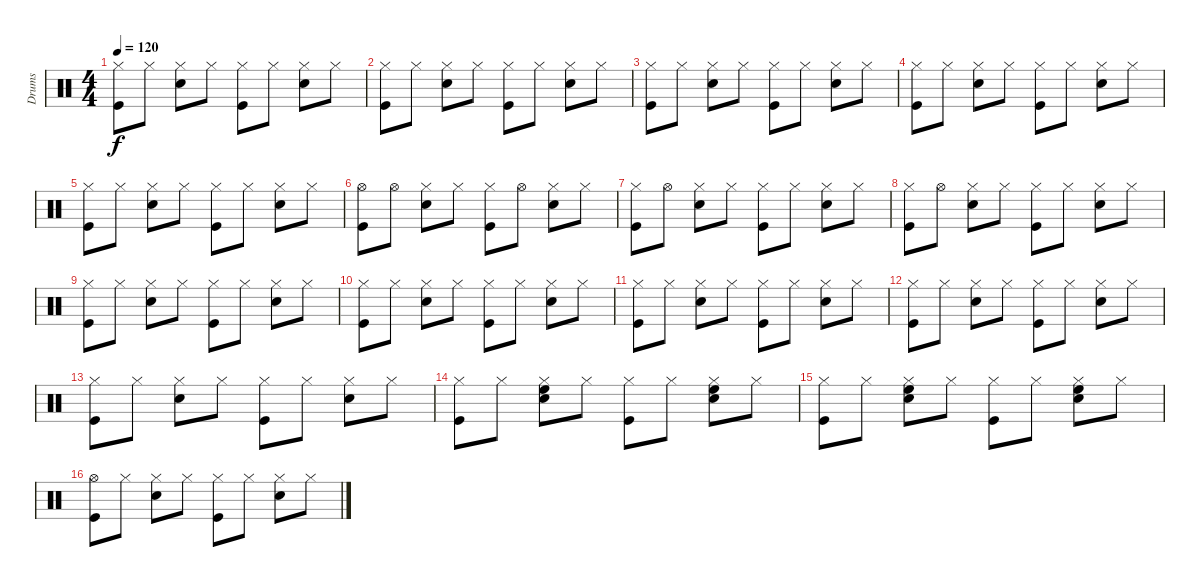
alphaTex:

\track ("Drums" "Drums") {instrument percussion}
\staff {score}
\articulation defaults
\ts (4 4)
\tempo 120
\clef neutral
\ks c
("Hi-Hat (closed)" "Kick (hit)").8{dy f} "Hi-Hat (closed)".8 ("Hi-Hat (closed)" "Snare (hit) 2").8 "Hi-Hat (closed)".8 ("Hi-Hat (closed)" "Kick (hit)").8 "Hi-Hat (closed)".8 ("Hi-Hat (closed)" "Snare (hit) 2").8 "Hi-Hat (closed)".8 |
("Hi-Hat (closed)" "Kick (hit)").8 "Hi-Hat (closed)".8 ("Hi-Hat (closed)" "Snare (hit) 2").8 "Hi-Hat (closed)".8 ("Hi-Hat (closed)" "Kick (hit)").8 "Hi-Hat (closed)".8 ("Hi-Hat (closed)" "Snare (hit) 2").8 "Hi-Hat (closed)".8 |
("Hi-Hat (closed)" "Kick (hit)").8 "Hi-Hat (closed)".8 ("Hi-Hat (closed)" "Snare (hit) 2").8 "Hi-Hat (closed)".8 ("Hi-Hat (closed)" "Kick (hit)").8 "Hi-Hat (closed)".8 ("Hi-Hat (closed)" "Snare (hit) 2").8 "Hi-Hat (closed)".8 |
("Hi-Hat (closed)" "Kick (hit)").8 "Hi-Hat (closed)".8 ("Hi-Hat (closed)" "Snare (hit) 2").8 "Hi-Hat (closed)".8 ("Hi-Hat (closed)" "Kick (hit)").8 "Hi-Hat (closed)".8 ("Hi-Hat (closed)" "Snare (hit) 2").8 "Hi-Hat (closed)".8 |
("Hi-Hat (closed)" "Kick (hit)").8 "Hi-Hat (closed)".8 ("Hi-Hat (closed)" "Snare (hit) 2").8 "Hi-Hat (closed)".8 ("Hi-Hat (closed)" "Kick (hit)").8 "Hi-Hat (closed)".8 ("Hi-Hat (closed)" "Snare (hit) 2").8 "Hi-Hat (closed)".8 |
("Hi-Hat (open)" "Kick (hit)").8 "Hi-Hat (open)".8 ("Hi-Hat (closed)" "Snare (hit) 2").8 "Hi-Hat (closed)".8 ("Hi-Hat (closed)" "Kick (hit)").8 "Hi-Hat (open)".8 ("Hi-Hat (closed)" "Snare (hit) 2").8 "Hi-Hat (closed)".8 |
("Hi-Hat (closed)" "Kick (hit)").8 "Hi-Hat (open)".8 ("Hi-Hat (closed)" "Snare (hit) 2").8 "Hi-Hat (closed)".8 ("Hi-Hat (closed)" "Kick (hit)").8 "Hi-Hat (closed)".8 ("Hi-Hat (closed)" "Snare (hit) 2").8 "Hi-Hat (closed)".8 |
("Hi-Hat (closed)" "Kick (hit)").8 "Hi-Hat (open)".8 ("Hi-Hat (closed)" "Snare (hit) 2").8 "Hi-Hat (closed)".8 ("Hi-Hat (closed)" "Kick (hit)").8 "Hi-Hat (closed)".8 ("Hi-Hat (closed)" "Snare (hit) 2").8 "Hi-Hat (closed)".8 |
("Hi-Hat (closed)" "Kick (hit)").8 "Hi-Hat (closed)".8 ("Hi-Hat (closed)" "Snare (hit) 2").8 "Hi-Hat (closed)".8 ("Hi-Hat (closed)" "Kick (hit)").8 "Hi-Hat (closed)".8 ("Hi-Hat (closed)" "Snare (hit) 2").8 "Hi-Hat (closed)".8 |
("Hi-Hat (closed)" "Kick (hit)").8 "Hi-Hat (closed)".8 ("Hi-Hat (closed)" "Snare (hit) 2").8 "Hi-Hat (closed)".8 ("Hi-Hat (closed)" "Kick (hit)").8 "Hi-Hat (closed)".8 ("Hi-Hat (closed)" "Snare (hit) 2").8 "Hi-Hat (closed)".8 |
("Hi-Hat (closed)" "Kick (hit)").8 "Hi-Hat (closed)".8 ("Hi-Hat (closed)" "Snare (hit) 2").8 "Hi-Hat (closed)".8 ("Hi-Hat (closed)" "Kick (hit)").8 "Hi-Hat (closed)".8 ("Hi-Hat (closed)" "Snare (hit) 2").8 "Hi-Hat (closed)".8 |
("Hi-Hat (closed)" "Kick (hit)").8 "Hi-Hat (closed)".8 ("Hi-Hat (closed)" "Snare (hit) 2").8 "Hi-Hat (closed)".8 ("Hi-Hat (closed)" "Kick (hit)").8 "Hi-Hat (closed)".8 ("Hi-Hat (closed)" "Snare (hit) 2").8 "Hi-Hat (closed)".8 |
("Hi-Hat (closed)" "Kick (hit)").8 "Hi-Hat (closed)".8 ("Hi-Hat (closed)" "Snare (hit) 2").8 "Hi-Hat (closed)".8 ("Hi-Hat (closed)" "Kick (hit)").8 "Hi-Hat (closed)".8 ("Hi-Hat (closed)" "Snare (hit) 2").8 "Hi-Hat (closed)".8 |
("Hi-Hat (closed)" "Kick (hit)").8 "Hi-Hat (closed)".8 ("Hi-Hat (closed)" "High Floor Tom (hit)" "Snare (hit) 2").8 "Hi-Hat (closed)".8 ("Hi-Hat (closed)" "Kick (hit)").8 "Hi-Hat (closed)".8 ("Hi-Hat (closed)" "High Floor Tom (hit)" "Snare (hit) 2").8 "Hi-Hat (closed)".8 |
("Hi-Hat (closed)" "Kick (hit)").8 "Hi-Hat (closed)".8 ("Hi-Hat (closed)" "High Floor Tom (hit)" "Snare (hit) 2").8 "Hi-Hat (closed)".8 ("Hi-Hat (closed)" "Kick (hit)").8 "Hi-Hat (closed)".8 ("Hi-Hat (closed)" "High Floor Tom (hit)" "Snare (hit) 2").8 "Hi-Hat (closed)".8 |
("Hi-Hat (open)" "Kick (hit)").8 "Hi-Hat (closed)".8 ("Hi-Hat (closed)" "Snare (hit) 2").8 "Hi-Hat (closed)".8 ("Hi-Hat (closed)" "Kick (hit)").8 "Hi-Hat (closed)".8 ("Hi-Hat (closed)" "Snare (hit) 2").8 "Hi-Hat (closed)".8
